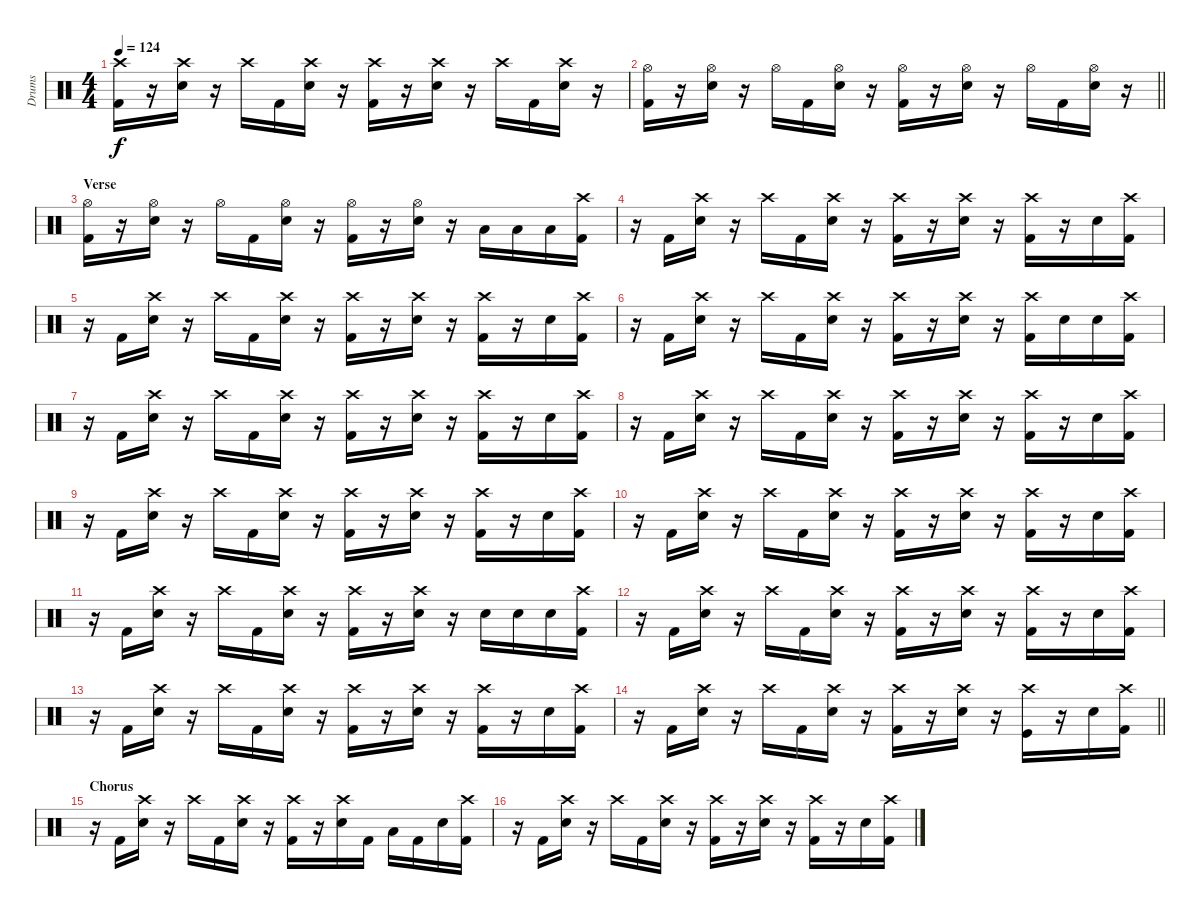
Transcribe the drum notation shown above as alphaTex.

\track ("Drums" "Drums") {instrument percussion}
\staff {score}
\articulation defaults
\ts (4 4)
\tempo 124
\clef neutral
\ks c
("Crash high (hit)" "Kick (hit) 2").16{dy f} r.16 ("Crash high (hit)" "Snare (hit) 2").16 r.16 "Crash high (hit)".16 "Kick (hit) 2".16 ("Crash high (hit)" "Snare (hit) 2").16 r.16 ("Crash high (hit)" "Kick (hit) 2").16 r.16 ("Crash high (hit)" "Snare (hit) 2").16 r.16 "Crash high (hit)".16 "Kick (hit) 2".16 ("Crash high (hit)" "Snare (hit) 2").16 r.16 |
\barLineRight lightlight
("Hi-Hat (open)" "Kick (hit) 2").16 r.16 ("Hi-Hat (open)" "Snare (hit) 2").16 r.16 "Hi-Hat (open)".16 "Kick (hit) 2".16 ("Hi-Hat (open)" "Snare (hit) 2").16 r.16 ("Hi-Hat (open)" "Kick (hit) 2").16 r.16 ("Hi-Hat (open)" "Snare (hit) 2").16 r.16 "Hi-Hat (open)".16 "Kick (hit) 2".16 ("Hi-Hat (open)" "Snare (hit) 2").16 r.16 |
\section ("" "Verse")
("Hi-Hat (open)" "Kick (hit) 2").16 r.16 ("Hi-Hat (open)" "Snare (hit) 2").16 r.16 "Hi-Hat (open)".16 "Kick (hit) 2".16 ("Hi-Hat (open)" "Snare (hit) 2").16 r.16 ("Hi-Hat (open)" "Kick (hit) 2").16 r.16 ("Hi-Hat (open)" "Snare (hit) 2").16 r.16 "Low Floor Tom (hit)".16 "Low Floor Tom (hit)".16 "Low Floor Tom (hit)".16 ("Crash high (hit)" "Kick (hit) 2").16 |
r.16 "Kick (hit) 2".16 ("Crash high (hit)" "Snare (hit) 2").16 r.16 "Crash high (hit)".16 "Kick (hit) 2".16 ("Crash high (hit)" "Snare (hit) 2").16 r.16 ("Crash high (hit)" "Kick (hit) 2").16 r.16 ("Crash high (hit)" "Snare (hit) 2").16 r.16 ("Crash high (hit)" "Kick (hit) 2").16 r.16 "Snare (hit) 2".16 ("Crash high (hit)" "Kick (hit) 2").16 |
r.16 "Kick (hit) 2".16 ("Crash high (hit)" "Snare (hit) 2").16 r.16 "Crash high (hit)".16 "Kick (hit) 2".16 ("Crash high (hit)" "Snare (hit) 2").16 r.16 ("Crash high (hit)" "Kick (hit) 2").16 r.16 ("Crash high (hit)" "Snare (hit) 2").16 r.16 ("Crash high (hit)" "Kick (hit) 2").16 r.16 "Snare (hit) 2".16 ("Crash high (hit)" "Kick (hit) 2").16 |
r.16 "Kick (hit) 2".16 ("Crash high (hit)" "Snare (hit) 2").16 r.16 "Crash high (hit)".16 "Kick (hit) 2".16 ("Crash high (hit)" "Snare (hit) 2").16 r.16 ("Crash high (hit)" "Kick (hit) 2").16 r.16 ("Crash high (hit)" "Snare (hit) 2").16 r.16 ("Crash high (hit)" "Kick (hit) 2").16 "Snare (hit) 2".16 "Snare (hit) 2".16 ("Crash high (hit)" "Kick (hit) 2").16 |
r.16 "Kick (hit) 2".16 ("Crash high (hit)" "Snare (hit) 2").16 r.16 "Crash high (hit)".16 "Kick (hit) 2".16 ("Crash high (hit)" "Snare (hit) 2").16 r.16 ("Crash high (hit)" "Kick (hit) 2").16 r.16 ("Crash high (hit)" "Snare (hit) 2").16 r.16 ("Crash high (hit)" "Kick (hit) 2").16 r.16 "Snare (hit) 2".16 ("Crash high (hit)" "Kick (hit) 2").16 |
r.16 "Kick (hit) 2".16 ("Crash high (hit)" "Snare (hit) 2").16 r.16 "Crash high (hit)".16 "Kick (hit) 2".16 ("Crash high (hit)" "Snare (hit) 2").16 r.16 ("Crash high (hit)" "Kick (hit) 2").16 r.16 ("Crash high (hit)" "Snare (hit) 2").16 r.16 ("Crash high (hit)" "Kick (hit) 2").16 r.16 "Snare (hit) 2".16 ("Crash high (hit)" "Kick (hit) 2").16 |
r.16 "Kick (hit) 2".16 ("Crash high (hit)" "Snare (hit) 2").16 r.16 "Crash high (hit)".16 "Kick (hit) 2".16 ("Crash high (hit)" "Snare (hit) 2").16 r.16 ("Crash high (hit)" "Kick (hit) 2").16 r.16 ("Crash high (hit)" "Snare (hit) 2").16 r.16 ("Crash high (hit)" "Kick (hit) 2").16 r.16 "Snare (hit) 2".16 ("Crash high (hit)" "Kick (hit) 2").16 |
r.16 "Kick (hit) 2".16 ("Crash high (hit)" "Snare (hit) 2").16 r.16 "Crash high (hit)".16 "Kick (hit) 2".16 ("Crash high (hit)" "Snare (hit) 2").16 r.16 ("Crash high (hit)" "Kick (hit) 2").16 r.16 ("Crash high (hit)" "Snare (hit) 2").16 r.16 ("Crash high (hit)" "Kick (hit) 2").16 r.16 "Snare (hit) 2".16 ("Crash high (hit)" "Kick (hit) 2").16 |
r.16 "Kick (hit) 2".16 ("Crash high (hit)" "Snare (hit) 2").16 r.16 "Crash high (hit)".16 "Kick (hit) 2".16 ("Crash high (hit)" "Snare (hit) 2").16 r.16 ("Crash high (hit)" "Kick (hit) 2").16 r.16 ("Crash high (hit)" "Snare (hit) 2").16 r.16 "Snare (hit) 2".16 "Snare (hit) 2".16 "Snare (hit) 2".16 ("Crash high (hit)" "Kick (hit) 2").16 |
r.16 "Kick (hit) 2".16 ("Crash high (hit)" "Snare (hit) 2").16 r.16 "Crash high (hit)".16 "Kick (hit) 2".16 ("Crash high (hit)" "Snare (hit) 2").16 r.16 ("Crash high (hit)" "Kick (hit) 2").16 r.16 ("Crash high (hit)" "Snare (hit) 2").16 r.16 ("Crash high (hit)" "Kick (hit) 2").16 r.16 "Snare (hit) 2".16 ("Crash high (hit)" "Kick (hit) 2").16 |
r.16 "Kick (hit) 2".16 ("Crash high (hit)" "Snare (hit) 2").16 r.16 "Crash high (hit)".16 "Kick (hit) 2".16 ("Crash high (hit)" "Snare (hit) 2").16 r.16 ("Crash high (hit)" "Kick (hit) 2").16 r.16 ("Crash high (hit)" "Snare (hit) 2").16 r.16 ("Crash high (hit)" "Kick (hit) 2").16 r.16 "Snare (hit) 2".16 ("Crash high (hit)" "Kick (hit) 2").16 |
\barLineRight lightlight
r.16 "Kick (hit) 2".16 ("Crash high (hit)" "Snare (hit) 2").16 r.16 "Crash high (hit)".16 "Kick (hit) 2".16 ("Crash high (hit)" "Snare (hit) 2").16 r.16 ("Crash high (hit)" "Kick (hit) 2").16 r.16 ("Crash high (hit)" "Snare (hit) 2").16 r.16 ("Crash high (hit)" "Kick (hit)").16 r.16 "Snare (hit) 2".16 ("Crash high (hit)" "Kick (hit) 2").16 |
\section ("" "Chorus")
r.16 "Kick (hit) 2".16 ("Crash high (hit)" "Snare (hit) 2").16 r.16 "Crash high (hit)".16 "Kick (hit) 2".16 ("Crash high (hit)" "Snare (hit) 2").16 r.16 ("Crash high (hit)" "Kick (hit) 2").16 r.16 ("Crash high (hit)" "Snare (hit) 2").16 "Kick (hit) 2".16 "Low Floor Tom (hit)".16 "Kick (hit) 2".16 "Snare (hit) 2".16 ("Crash high (hit)" "Kick (hit) 2").16 |
r.16 "Kick (hit) 2".16 ("Crash high (hit)" "Snare (hit) 2").16 r.16 "Crash high (hit)".16 "Kick (hit) 2".16 ("Crash high (hit)" "Snare (hit) 2").16 r.16 ("Crash high (hit)" "Kick (hit) 2").16 r.16 ("Crash high (hit)" "Snare (hit) 2").16 r.16 ("Crash high (hit)" "Kick (hit) 2").16 r.16 "Snare (hit) 2".16 ("Crash high (hit)" "Kick (hit) 2").16
